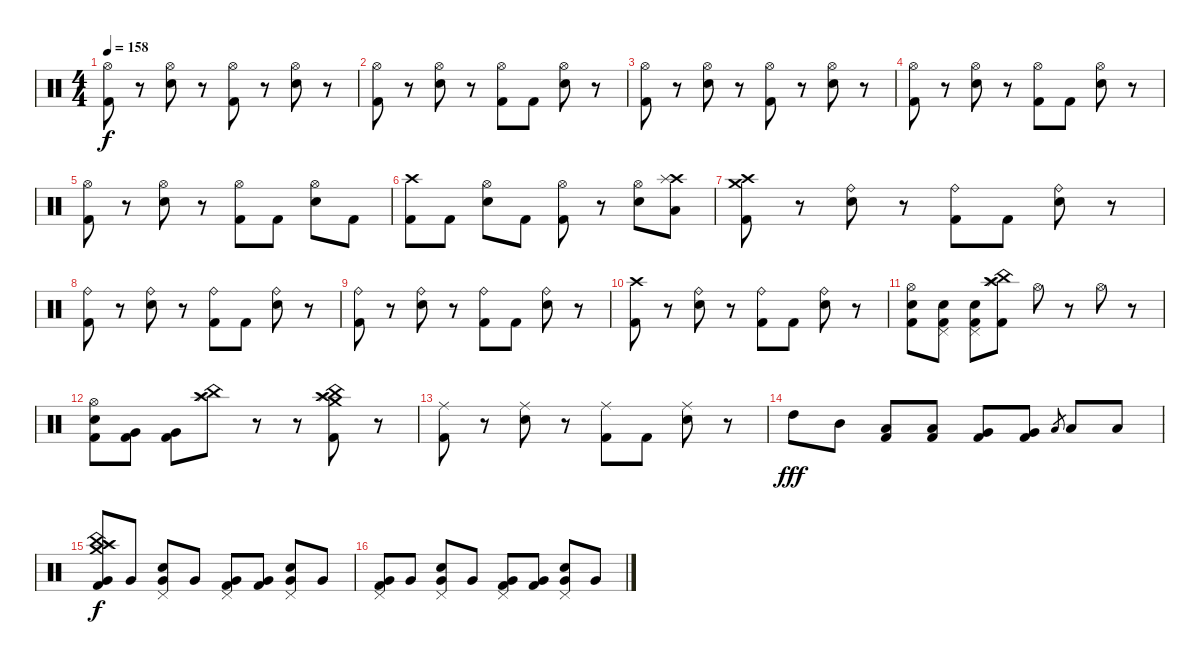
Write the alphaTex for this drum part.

\track "" {instrument percussion}
\staff {score}
\articulation defaults
\ts (4 4)
\tempo 158
\clef neutral
\ks c
("Hi-Hat (open)" "Kick (hit) 2").8{dy f} r.8 ("Hi-Hat (open)" "Electric Snare (hit)").8 r.8 ("Hi-Hat (open)" "Kick (hit) 2").8 r.8 ("Hi-Hat (open)" "Electric Snare (hit)").8 r.8 |
("Hi-Hat (open)" "Kick (hit) 2").8 r.8 ("Hi-Hat (open)" "Electric Snare (hit)").8 r.8 ("Hi-Hat (open)" "Kick (hit) 2").8 "Kick (hit) 2".8 ("Hi-Hat (open)" "Electric Snare (hit)").8 r.8 |
("Hi-Hat (open)" "Kick (hit) 2").8 r.8 ("Hi-Hat (open)" "Electric Snare (hit)").8 r.8 ("Hi-Hat (open)" "Kick (hit) 2").8 r.8 ("Hi-Hat (open)" "Electric Snare (hit)").8 r.8 |
("Hi-Hat (open)" "Kick (hit) 2").8 r.8 ("Hi-Hat (open)" "Electric Snare (hit)").8 r.8 ("Hi-Hat (open)" "Kick (hit) 2").8 "Kick (hit) 2".8 ("Hi-Hat (open)" "Electric Snare (hit)").8 r.8 |
("Hi-Hat (open)" "Kick (hit) 2").8 r.8 ("Hi-Hat (open)" "Electric Snare (hit)").8 r.8 ("Hi-Hat (open)" "Kick (hit) 2").8 "Kick (hit) 2".8 ("Hi-Hat (open)" "Electric Snare (hit)").8 "Kick (hit) 2".8 |
("Crash high (hit)" "Kick (hit) 2").8 "Kick (hit) 2".8 ("Hi-Hat (open)" "Electric Snare (hit)").8 "Kick (hit) 2".8 ("Hi-Hat (open)" "Kick (hit) 2").8 r.8 ("Hi-Hat (open)" "Electric Snare (hit)").8 ("Crash high (hit)" "Splash (hit)" "Low Tom (hit)").8 |
("Crash high (hit)" "Crash medium (hit)" "Kick (hit) 2").8 r.8 ("Ride (bell)" "Electric Snare (hit)").8 r.8 ("Ride (bell)" "Kick (hit) 2").8 "Kick (hit) 2".8 ("Ride (bell)" "Electric Snare (hit)").8 r.8 |
("Ride (bell)" "Kick (hit) 2").8 r.8 ("Ride (bell)" "Electric Snare (hit)").8 r.8 ("Ride (bell)" "Kick (hit) 2").8 "Kick (hit) 2".8 ("Ride (bell)" "Electric Snare (hit)").8 r.8 |
("Ride (bell)" "Kick (hit) 2").8 r.8 ("Ride (bell)" "Electric Snare (hit)").8 r.8 ("Ride (bell)" "Kick (hit) 2").8 "Kick (hit) 2".8 ("Ride (bell)" "Electric Snare (hit)").8 r.8 |
("Crash high (hit)" "Kick (hit) 2").8 r.8 ("Ride (bell)" "Electric Snare (hit)").8 r.8 ("Ride (bell)" "Kick (hit) 2").8 "Kick (hit) 2".8 ("Ride (bell)" "Electric Snare (hit)").8 r.8 |
("Hi-Hat (open)" "Electric Snare (hit)" "Kick (hit) 2").8 ("Electric Snare (hit)" "Kick (hit) 2" "Pedal Hi-Hat (hit)").8 ("Electric Snare (hit)" "Kick (hit) 2" "Pedal Hi-Hat (hit)").8 ("Crash high (hit)" "Splash (hit)" "China (hit)" "Kick (hit) 2").8 "Hi-Hat (open)".8 r.8 "Hi-Hat (open)".8 r.8 |
("Hi-Hat (open)" "Electric Snare (hit)" "Kick (hit) 2").8 ("Very Low Tom (hit)" "Kick (hit) 2").8 ("Very Low Tom (hit)" "Kick (hit) 2").8 ("Crash high (hit)" "Splash (hit)" "China (hit)").8 r.8 r.8 ("Crash high (hit)" "Splash (hit)" "Crash medium (hit)" "China (hit)" "Kick (hit) 2").8 r.8 |
("Ride (middle)" "Kick (hit) 2").8 r.8 ("Ride (middle)" "Electric Snare (hit)").8 r.8 ("Ride (middle)" "Kick (hit) 2").8 "Kick (hit) 2".8 ("Ride (middle)" "Electric Snare (hit)").8 r.8 |
"High Tom (hit)".8{dy fff} "Mid Tom (hit)".8 ("Low Tom (hit)" "Kick (hit) 2").8 ("Low Tom (hit)" "Kick (hit) 2").8 ("Very Low Tom (hit)" "Kick (hit) 2").8 ("Very Low Tom (hit)" "Kick (hit) 2").8 "Low Floor Tom (hit)".8{gr} "Low Floor Tom (hit)".8 "Low Floor Tom (hit)".8 |
("Crash high (hit)" "Splash (hit)" "China (hit)" "Crash medium (hit)" "Kick (hit) 2" "Very Low Tom (hit)").8{dy f} "Very Low Tom (hit)".8 ("Pedal Hi-Hat (hit)" "Electric Snare (hit)" "Very Low Tom (hit)").8 "Very Low Tom (hit)".8 ("Pedal Hi-Hat (hit)" "Kick (hit) 2" "Very Low Tom (hit)").8 ("Kick (hit) 2" "Very Low Tom (hit)").8 ("Pedal Hi-Hat (hit)" "Electric Snare (hit)" "Very Low Tom (hit)").8 "Very Low Tom (hit)".8 |
("Pedal Hi-Hat (hit)" "Kick (hit) 2" "Very Low Tom (hit)").8 "Very Low Tom (hit)".8 ("Pedal Hi-Hat (hit)" "Electric Snare (hit)" "Very Low Tom (hit)").8 "Very Low Tom (hit)".8 ("Pedal Hi-Hat (hit)" "Kick (hit) 2" "Very Low Tom (hit)").8 ("Kick (hit) 2" "Very Low Tom (hit)").8 ("Pedal Hi-Hat (hit)" "Electric Snare (hit)" "Very Low Tom (hit)").8 "Very Low Tom (hit)".8
